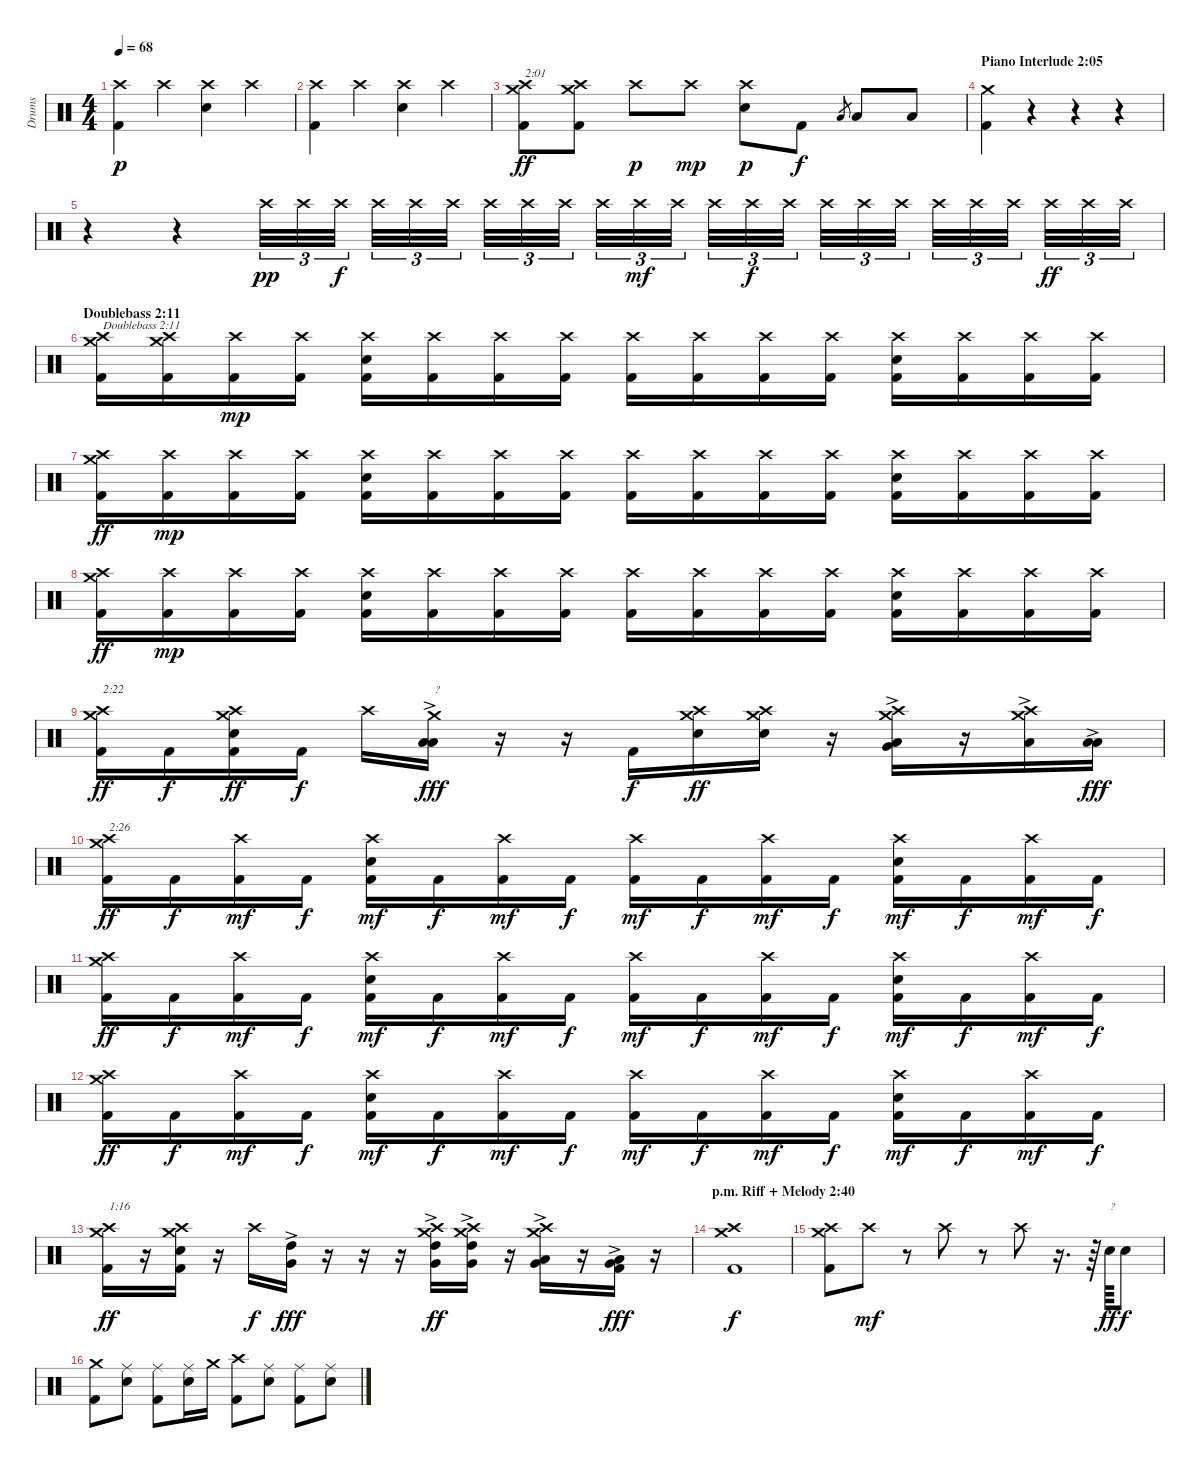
\track ("Drums" "Drums") {instrument percussion}
\staff {score}
\articulation defaults
\ts (4 4)
\tempo 68
\clef neutral
\ks c
("Kick (hit) 2" "Crash high (hit)").4{dy p} "Crash high (hit)".4 ("Electric Snare (hit)" "Crash high (hit)").4 "Crash high (hit)".4 |
("Kick (hit) 2" "Crash high (hit)").4 "Crash high (hit)".4 ("Electric Snare (hit)" "Crash high (hit)").4 "Crash high (hit)".4 |
("Kick (hit) 2" "Crash high (hit)" "Crash medium (hit)").8{txt "2:01" dy ff} ("Kick (hit) 2" "Crash high (hit)" "Crash medium (hit)").8 "Crash high (hit)".8{dy p} "Crash high (hit)".8{dy mp} ("Electric Snare (hit)" "Crash high (hit)").8{dy p} "Kick (hit) 2".8{dy f} "Low Tom (hit)".8{gr} "Low Tom (hit)".8 "Low Tom (hit)".8 |
\section ("" "Piano Interlude 2:05")
("Kick (hit) 2" "Crash medium (hit)").4 r.4 r.4 r.4 |
r.4{volume 0} r.4 "Crash high (hit)".32{tu (3 2) dy pp volume 13} "Crash high (hit)".32{tu (3 2)} "Crash high (hit)".32{tu (3 2) dy f} "Crash high (hit)".32{tu (3 2)} "Crash high (hit)".32{tu (3 2)} "Crash high (hit)".32{tu (3 2)} "Crash high (hit)".32{tu (3 2)} "Crash high (hit)".32{tu (3 2)} "Crash high (hit)".32{tu (3 2)} "Crash high (hit)".32{tu (3 2)} "Crash high (hit)".32{tu (3 2) dy mf} "Crash high (hit)".32{tu (3 2)} "Crash high (hit)".32{tu (3 2)} "Crash high (hit)".32{tu (3 2) dy f} "Crash high (hit)".32{tu (3 2)} "Crash high (hit)".32{tu (3 2)} "Crash high (hit)".32{tu (3 2)} "Crash high (hit)".32{tu (3 2)} "Crash high (hit)".32{tu (3 2)} "Crash high (hit)".32{tu (3 2)} "Crash high (hit)".32{tu (3 2)} "Crash high (hit)".32{tu (3 2) dy ff} "Crash high (hit)".32{tu (3 2)} "Crash high (hit)".32{tu (3 2)} |
\section ("" "Doublebass 2:11")
("Kick (hit) 2" "Crash high (hit)" "Crash medium (hit)").16{txt "Doublebass 2:11" volume 13} ("Kick (hit) 2" "Crash high (hit)" "Crash medium (hit)").16 ("Kick (hit) 2" "Crash high (hit)").16{dy mp} ("Kick (hit) 2" "Crash high (hit)").16 ("Kick (hit) 2" "Electric Snare (hit)" "Crash high (hit)").16 ("Kick (hit) 2" "Crash high (hit)").16 ("Kick (hit) 2" "Crash high (hit)").16 ("Kick (hit) 2" "Crash high (hit)").16 ("Kick (hit) 2" "Crash high (hit)").16 ("Kick (hit) 2" "Crash high (hit)").16 ("Kick (hit) 2" "Crash high (hit)").16 ("Kick (hit) 2" "Crash high (hit)").16 ("Kick (hit) 2" "Electric Snare (hit)" "Crash high (hit)").16 ("Kick (hit) 2" "Crash high (hit)").16 ("Kick (hit) 2" "Crash high (hit)").16 ("Kick (hit) 2" "Crash high (hit)").16 |
("Kick (hit) 2" "Crash high (hit)" "Crash medium (hit)").16{dy ff} ("Kick (hit) 2" "Crash high (hit)").16{dy mp} ("Kick (hit) 2" "Crash high (hit)").16 ("Kick (hit) 2" "Crash high (hit)").16 ("Kick (hit) 2" "Electric Snare (hit)" "Crash high (hit)").16 ("Kick (hit) 2" "Crash high (hit)").16 ("Kick (hit) 2" "Crash high (hit)").16 ("Kick (hit) 2" "Crash high (hit)").16 ("Kick (hit) 2" "Crash high (hit)").16 ("Kick (hit) 2" "Crash high (hit)").16 ("Kick (hit) 2" "Crash high (hit)").16 ("Kick (hit) 2" "Crash high (hit)").16 ("Kick (hit) 2" "Electric Snare (hit)" "Crash high (hit)").16 ("Kick (hit) 2" "Crash high (hit)").16 ("Kick (hit) 2" "Crash high (hit)").16 ("Kick (hit) 2" "Crash high (hit)").16 |
("Kick (hit) 2" "Crash high (hit)" "Crash medium (hit)").16{dy ff} ("Kick (hit) 2" "Crash high (hit)").16{dy mp} ("Kick (hit) 2" "Crash high (hit)").16 ("Kick (hit) 2" "Crash high (hit)").16 ("Kick (hit) 2" "Electric Snare (hit)" "Crash high (hit)").16 ("Kick (hit) 2" "Crash high (hit)").16 ("Kick (hit) 2" "Crash high (hit)").16 ("Kick (hit) 2" "Crash high (hit)").16 ("Kick (hit) 2" "Crash high (hit)").16 ("Kick (hit) 2" "Crash high (hit)").16 ("Kick (hit) 2" "Crash high (hit)").16 ("Kick (hit) 2" "Crash high (hit)").16 ("Kick (hit) 2" "Electric Snare (hit)" "Crash high (hit)").16 ("Kick (hit) 2" "Crash high (hit)").16 ("Kick (hit) 2" "Crash high (hit)").16 ("Kick (hit) 2" "Crash high (hit)").16 |
("Kick (hit) 2" "Crash high (hit)" "Crash medium (hit)").16{txt "2:22" dy ff} "Kick (hit) 2".16{dy f} ("Kick (hit) 2" "Electric Snare (hit)" "Crash high (hit)" "Crash medium (hit)").16{dy ff} "Kick (hit) 2".16{dy f} "Crash high (hit)".16 ("Low Tom (hit)"{ac} "Low Tom (hit)"{ac} "Crash medium (hit)").16{txt "?" dy fff} r.16 r.16 "Kick (hit) 2".16{dy f} ("Electric Snare (hit)" "Crash high (hit)" "Crash medium (hit)").16{dy ff} ("Electric Snare (hit)" "Crash high (hit)" "Crash medium (hit)").16 r.16 ("Very Low Tom (hit)"{ac} "Low Tom (hit)"{ac} "Crash high (hit)" "Crash medium (hit)").16 r.16 ("Low Tom (hit)"{ac} "Crash high (hit)" "Crash medium (hit)").16 ("Low Tom (hit)"{ac} "Low Tom (hit)"{ac}).16{dy fff} |
("Kick (hit) 2" "Crash high (hit)" "Crash medium (hit)").16{txt "2:26" dy ff} "Kick (hit) 2".16{dy f} ("Kick (hit) 2" "Crash high (hit)").16{dy mf} "Kick (hit) 2".16{dy f} ("Kick (hit) 2" "Electric Snare (hit)" "Crash high (hit)").16{dy mf} "Kick (hit) 2".16{dy f} ("Kick (hit) 2" "Crash high (hit)").16{dy mf} "Kick (hit) 2".16{dy f} ("Kick (hit) 2" "Crash high (hit)").16{dy mf} "Kick (hit) 2".16{dy f} ("Kick (hit) 2" "Crash high (hit)").16{dy mf} "Kick (hit) 2".16{dy f} ("Kick (hit) 2" "Electric Snare (hit)" "Crash high (hit)").16{dy mf} "Kick (hit) 2".16{dy f} ("Kick (hit) 2" "Crash high (hit)").16{dy mf} "Kick (hit) 2".16{dy f} |
("Kick (hit) 2" "Crash high (hit)" "Crash medium (hit)").16{dy ff} "Kick (hit) 2".16{dy f} ("Kick (hit) 2" "Crash high (hit)").16{dy mf} "Kick (hit) 2".16{dy f} ("Kick (hit) 2" "Electric Snare (hit)" "Crash high (hit)").16{dy mf} "Kick (hit) 2".16{dy f} ("Kick (hit) 2" "Crash high (hit)").16{dy mf} "Kick (hit) 2".16{dy f} ("Kick (hit) 2" "Crash high (hit)").16{dy mf} "Kick (hit) 2".16{dy f} ("Kick (hit) 2" "Crash high (hit)").16{dy mf} "Kick (hit) 2".16{dy f} ("Kick (hit) 2" "Electric Snare (hit)" "Crash high (hit)").16{dy mf} "Kick (hit) 2".16{dy f} ("Kick (hit) 2" "Crash high (hit)").16{dy mf} "Kick (hit) 2".16{dy f} |
("Kick (hit) 2" "Crash high (hit)" "Crash medium (hit)").16{dy ff} "Kick (hit) 2".16{dy f} ("Kick (hit) 2" "Crash high (hit)").16{dy mf} "Kick (hit) 2".16{dy f} ("Kick (hit) 2" "Electric Snare (hit)" "Crash high (hit)").16{dy mf} "Kick (hit) 2".16{dy f} ("Kick (hit) 2" "Crash high (hit)").16{dy mf} "Kick (hit) 2".16{dy f} ("Kick (hit) 2" "Crash high (hit)").16{dy mf} "Kick (hit) 2".16{dy f} ("Kick (hit) 2" "Crash high (hit)").16{dy mf} "Kick (hit) 2".16{dy f} ("Kick (hit) 2" "Electric Snare (hit)" "Crash high (hit)").16{dy mf} "Kick (hit) 2".16{dy f} ("Kick (hit) 2" "Crash high (hit)").16{dy mf} "Kick (hit) 2".16{dy f} |
("Kick (hit) 2" "Crash high (hit)" "Crash medium (hit)").16{txt "1:16" dy ff} r.16 ("Kick (hit) 2" "Electric Snare (hit)" "Crash high (hit)" "Crash medium (hit)").16 r.16 "Crash high (hit)".16{dy f} ("Very Low Tom (hit)"{ac} "High Tom (hit)"{ac}).16{dy fff} r.16 r.16 r.16 ("Very Low Tom (hit)"{ac} "High Tom (hit)"{ac} "Crash high (hit)" "Crash medium (hit)").16{dy ff} ("Very Low Tom (hit)"{ac} "High Tom (hit)"{ac} "Crash high (hit)" "Crash medium (hit)").16 r.16 ("Very Low Tom (hit)"{ac} "Low Tom (hit)"{ac} "Crash high (hit)" "Crash medium (hit)").16 r.16 ("Kick (hit) 2"{ac} "Very Low Tom (hit)"{ac} "Low Tom (hit)"{ac}).16{dy fff} r.16 |
\section ("" "p.m. Riff + Melody 2:40")
("Kick (hit) 2" "Crash high (hit)" "Crash medium (hit)").1{dy f} |
("Kick (hit) 2" "Crash high (hit)" "Crash medium (hit)").8 "Crash high (hit)".8{dy mf} r.8 "Crash high (hit)".8 r.8 "Crash high (hit)".8 r.16{d} r.64 "Electric Snare (hit)".64{txt "?" dy ff} "Electric Snare (hit)".8{dy f} |
("Kick (hit) 2" "Crash medium (hit)").8 ("Electric Snare (hit)" "Ride (middle)").8 ("Kick (hit) 2" "Ride (middle)").8 ("Electric Snare (hit)" "Ride (middle)").16 "Crash medium (hit)".16 ("Kick (hit) 2" "Crash high (hit)").8 ("Electric Snare (hit)" "Ride (middle)").8 ("Kick (hit) 2" "Ride (middle)").8 ("Electric Snare (hit)" "Ride (middle)").8
